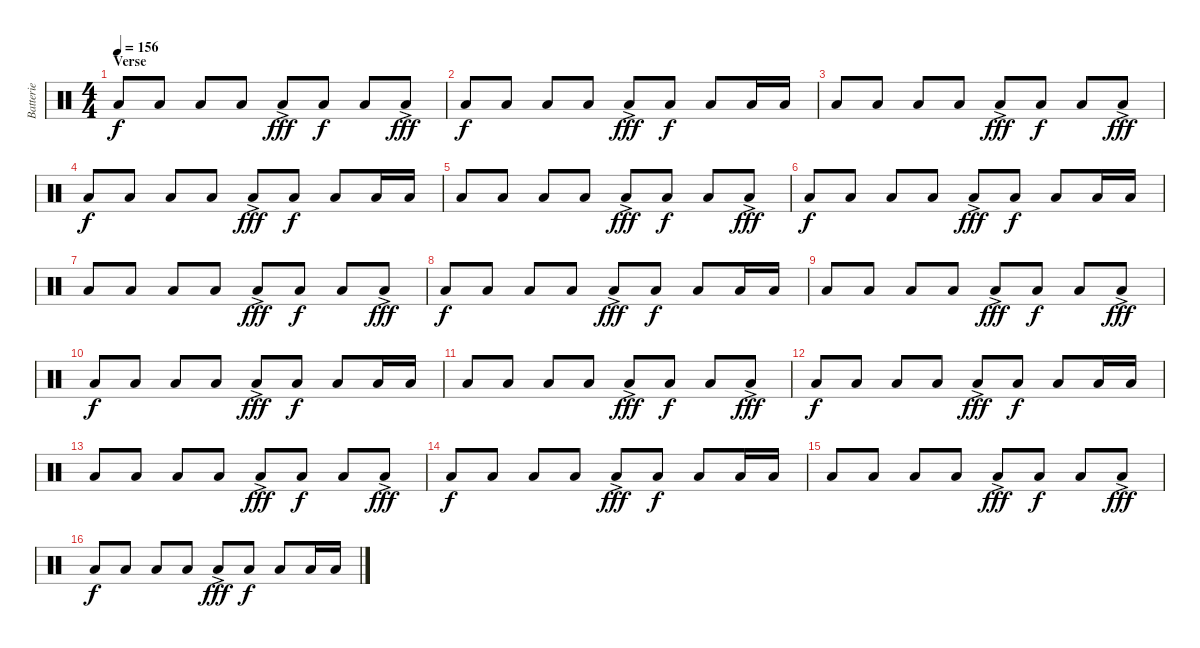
\track ("Batterie" "Batterie") {instrument percussion}
\staff {score}
\articulation defaults
\ts (4 4)
\section ("" "Verse")
\tempo 156
\clef neutral
\ks c "Low Floor Tom (hit)".8{dy f} "Low Floor Tom (hit)".8 "Low Floor Tom (hit)".8 "Low Floor Tom (hit)".8 "Low Floor Tom (hit)"{ac}.8{dy fff} "Low Floor Tom (hit)".8{dy f} "Low Floor Tom (hit)".8 "Low Floor Tom (hit)"{ac}.8{dy fff}
|
"Low Floor Tom (hit)".8{dy f} "Low Floor Tom (hit)".8 "Low Floor Tom (hit)".8 "Low Floor Tom (hit)".8 "Low Floor Tom (hit)"{ac}.8{dy fff} "Low Floor Tom (hit)".8{dy f} "Low Floor Tom (hit)".8 "Low Floor Tom (hit)".16 "Low Floor Tom (hit)".16 |
"Low Floor Tom (hit)".8 "Low Floor Tom (hit)".8 "Low Floor Tom (hit)".8 "Low Floor Tom (hit)".8 "Low Floor Tom (hit)"{ac}.8{dy fff} "Low Floor Tom (hit)".8{dy f} "Low Floor Tom (hit)".8 "Low Floor Tom (hit)"{ac}.8{dy fff} |
"Low Floor Tom (hit)".8{dy f} "Low Floor Tom (hit)".8 "Low Floor Tom (hit)".8 "Low Floor Tom (hit)".8 "Low Floor Tom (hit)"{ac}.8{dy fff} "Low Floor Tom (hit)".8{dy f} "Low Floor Tom (hit)".8 "Low Floor Tom (hit)".16 "Low Floor Tom (hit)".16 |
"Low Floor Tom (hit)".8 "Low Floor Tom (hit)".8 "Low Floor Tom (hit)".8 "Low Floor Tom (hit)".8 "Low Floor Tom (hit)"{ac}.8{dy fff} "Low Floor Tom (hit)".8{dy f} "Low Floor Tom (hit)".8 "Low Floor Tom (hit)"{ac}.8{dy fff} |
"Low Floor Tom (hit)".8{dy f} "Low Floor Tom (hit)".8 "Low Floor Tom (hit)".8 "Low Floor Tom (hit)".8 "Low Floor Tom (hit)"{ac}.8{dy fff} "Low Floor Tom (hit)".8{dy f} "Low Floor Tom (hit)".8 "Low Floor Tom (hit)".16 "Low Floor Tom (hit)".16 |
"Low Floor Tom (hit)".8 "Low Floor Tom (hit)".8 "Low Floor Tom (hit)".8 "Low Floor Tom (hit)".8 "Low Floor Tom (hit)"{ac}.8{dy fff} "Low Floor Tom (hit)".8{dy f} "Low Floor Tom (hit)".8 "Low Floor Tom (hit)"{ac}.8{dy fff} |
"Low Floor Tom (hit)".8{dy f} "Low Floor Tom (hit)".8 "Low Floor Tom (hit)".8 "Low Floor Tom (hit)".8 "Low Floor Tom (hit)"{ac}.8{dy fff} "Low Floor Tom (hit)".8{dy f} "Low Floor Tom (hit)".8 "Low Floor Tom (hit)".16 "Low Floor Tom (hit)".16 |
"Low Floor Tom (hit)".8 "Low Floor Tom (hit)".8 "Low Floor Tom (hit)".8 "Low Floor Tom (hit)".8 "Low Floor Tom (hit)"{ac}.8{dy fff} "Low Floor Tom (hit)".8{dy f} "Low Floor Tom (hit)".8 "Low Floor Tom (hit)"{ac}.8{dy fff} |
"Low Floor Tom (hit)".8{dy f} "Low Floor Tom (hit)".8 "Low Floor Tom (hit)".8 "Low Floor Tom (hit)".8 "Low Floor Tom (hit)"{ac}.8{dy fff} "Low Floor Tom (hit)".8{dy f} "Low Floor Tom (hit)".8 "Low Floor Tom (hit)".16 "Low Floor Tom (hit)".16 |
"Low Floor Tom (hit)".8 "Low Floor Tom (hit)".8 "Low Floor Tom (hit)".8 "Low Floor Tom (hit)".8 "Low Floor Tom (hit)"{ac}.8{dy fff} "Low Floor Tom (hit)".8{dy f} "Low Floor Tom (hit)".8 "Low Floor Tom (hit)"{ac}.8{dy fff} |
"Low Floor Tom (hit)".8{dy f} "Low Floor Tom (hit)".8 "Low Floor Tom (hit)".8 "Low Floor Tom (hit)".8 "Low Floor Tom (hit)"{ac}.8{dy fff} "Low Floor Tom (hit)".8{dy f} "Low Floor Tom (hit)".8 "Low Floor Tom (hit)".16 "Low Floor Tom (hit)".16 |
"Low Floor Tom (hit)".8 "Low Floor Tom (hit)".8 "Low Floor Tom (hit)".8 "Low Floor Tom (hit)".8 "Low Floor Tom (hit)"{ac}.8{dy fff} "Low Floor Tom (hit)".8{dy f} "Low Floor Tom (hit)".8 "Low Floor Tom (hit)"{ac}.8{dy fff} |
"Low Floor Tom (hit)".8{dy f} "Low Floor Tom (hit)".8 "Low Floor Tom (hit)".8 "Low Floor Tom (hit)".8 "Low Floor Tom (hit)"{ac}.8{dy fff} "Low Floor Tom (hit)".8{dy f} "Low Floor Tom (hit)".8 "Low Floor Tom (hit)".16 "Low Floor Tom (hit)".16 |
"Low Floor Tom (hit)".8 "Low Floor Tom (hit)".8 "Low Floor Tom (hit)".8 "Low Floor Tom (hit)".8 "Low Floor Tom (hit)"{ac}.8{dy fff} "Low Floor Tom (hit)".8{dy f} "Low Floor Tom (hit)".8 "Low Floor Tom (hit)"{ac}.8{dy fff} |
"Low Floor Tom (hit)".8{dy f} "Low Floor Tom (hit)".8 "Low Floor Tom (hit)".8 "Low Floor Tom (hit)".8 "Low Floor Tom (hit)"{ac}.8{dy fff} "Low Floor Tom (hit)".8{dy f} "Low Floor Tom (hit)".8 "Low Floor Tom (hit)".16 "Low Floor Tom (hit)".16
